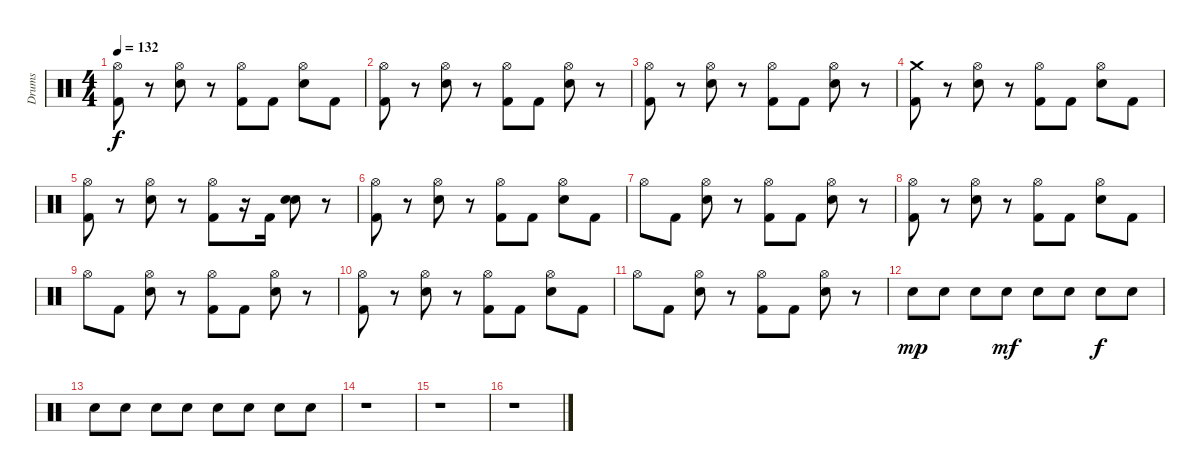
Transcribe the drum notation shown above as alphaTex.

\track ("Drums" "Drums") {instrument percussion}
\staff {score}
\articulation defaults
\ts (4 4)
\tempo 132
\clef neutral
\ks c
("Kick (hit) 2" "Hi-Hat (open)").8{dy f} r.8 ("Snare (hit) 2" "Hi-Hat (open)").8 r.8 ("Kick (hit) 2" "Hi-Hat (open)").8 "Kick (hit) 2".8 ("Snare (hit) 2" "Hi-Hat (open)").8 "Kick (hit) 2".8 |
("Kick (hit) 2" "Hi-Hat (open)").8 r.8 ("Snare (hit) 2" "Hi-Hat (open)").8 r.8 ("Kick (hit) 2" "Hi-Hat (open)").8 "Kick (hit) 2".8 ("Snare (hit) 2" "Hi-Hat (open)").8 r.8 |
("Kick (hit) 2" "Hi-Hat (open)").8 r.8 ("Snare (hit) 2" "Hi-Hat (open)").8 r.8 ("Kick (hit) 2" "Hi-Hat (open)").8 "Kick (hit) 2".8 ("Snare (hit) 2" "Hi-Hat (open)").8 r.8 |
("Kick (hit) 2" "Crash medium (hit)").8 r.8 ("Snare (hit) 2" "Hi-Hat (open)").8 r.8 ("Kick (hit) 2" "Hi-Hat (open)").8 "Kick (hit) 2".8 ("Snare (hit) 2" "Hi-Hat (open)").8 "Kick (hit) 2".8 |
("Kick (hit) 2" "Hi-Hat (open)").8 r.8 ("Snare (hit) 2" "Hi-Hat (open)").8 r.8 ("Kick (hit) 2" "Hi-Hat (open)").8 r.16 "Kick (hit) 2".16 ("Snare (hit) 2" "Electric Snare (hit)").8 r.8 |
("Kick (hit) 2" "Hi-Hat (open)").8 r.8 ("Snare (hit) 2" "Hi-Hat (open)").8 r.8 ("Kick (hit) 2" "Hi-Hat (open)").8 "Kick (hit) 2".8 ("Snare (hit) 2" "Hi-Hat (open)").8 "Kick (hit) 2".8 |
"Hi-Hat (open)".8 "Kick (hit) 2".8 ("Snare (hit) 2" "Hi-Hat (open)").8 r.8 ("Kick (hit) 2" "Hi-Hat (open)").8 "Kick (hit) 2".8 ("Snare (hit) 2" "Hi-Hat (open)").8 r.8 |
("Kick (hit) 2" "Hi-Hat (open)").8 r.8 ("Snare (hit) 2" "Hi-Hat (open)").8 r.8 ("Kick (hit) 2" "Hi-Hat (open)").8 "Kick (hit) 2".8 ("Snare (hit) 2" "Hi-Hat (open)").8 "Kick (hit) 2".8 |
"Hi-Hat (open)".8 "Kick (hit) 2".8 ("Snare (hit) 2" "Hi-Hat (open)").8 r.8 ("Kick (hit) 2" "Hi-Hat (open)").8 "Kick (hit) 2".8 ("Snare (hit) 2" "Hi-Hat (open)").8 r.8 |
("Kick (hit) 2" "Hi-Hat (open)").8 r.8 ("Snare (hit) 2" "Hi-Hat (open)").8 r.8 ("Kick (hit) 2" "Hi-Hat (open)").8 "Kick (hit) 2".8 ("Snare (hit) 2" "Hi-Hat (open)").8 "Kick (hit) 2".8 |
"Hi-Hat (open)".8 "Kick (hit) 2".8 ("Snare (hit) 2" "Hi-Hat (open)").8 r.8 ("Kick (hit) 2" "Hi-Hat (open)").8 "Kick (hit) 2".8 ("Snare (hit) 2" "Hi-Hat (open)").8 r.8 |
"Snare (hit) 2".8{dy mp} "Snare (hit) 2".8 "Snare (hit) 2".8 "Snare (hit) 2".8{dy mf} "Snare (hit) 2".8 "Snare (hit) 2".8 "Snare (hit) 2".8{dy f} "Snare (hit) 2".8 |
"Snare (hit) 2".8 "Snare (hit) 2".8 "Snare (hit) 2".8 "Snare (hit) 2".8 "Snare (hit) 2".8 "Snare (hit) 2".8 "Snare (hit) 2".8 "Snare (hit) 2".8 |
r.1 |
r.1 |
r.1
